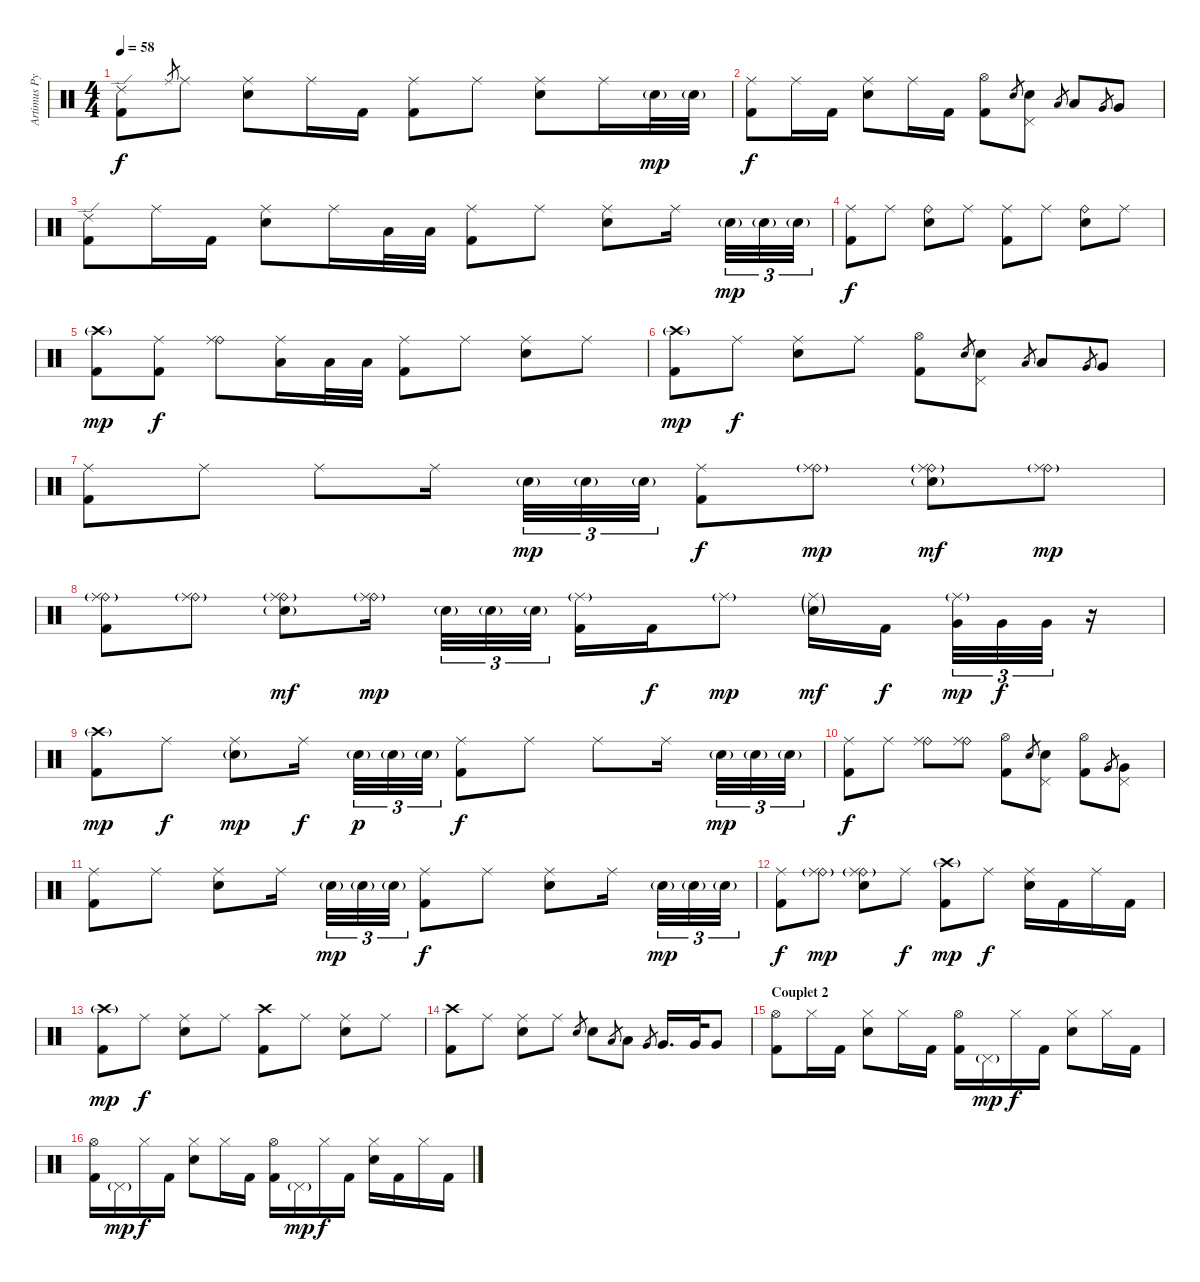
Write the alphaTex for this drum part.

\track ("Artimus Pyle (drums)" "Artimus Py") {instrument percussion}
\staff {score}
\articulation defaults
\ts (4 4)
\tempo 58
\clef neutral
\ks c
("Ride (edge) 2" "Kick (hit) 2").8{dy f} "Ride (middle)".8{gr} "Ride (middle)".8 ("Ride (middle)" "Electric Snare (hit)").8 "Ride (middle)".16 "Kick (hit) 2".16 ("Ride (middle)" "Kick (hit) 2").8 "Ride (middle)".8 ("Ride (middle)" "Electric Snare (hit)").8 "Ride (middle)".16 "Electric Snare (hit)"{g}.32{dy mp} "Electric Snare (hit)"{g}.32 |
("Ride (middle)" "Kick (hit) 2").8{dy f} "Ride (middle)".16 "Kick (hit) 2".16 ("Ride (middle)" "Electric Snare (hit)").8 "Ride (middle)".16 "Kick (hit) 2".16 ("Hi-Hat (open)" "Kick (hit) 2").8 "Electric Snare (hit)".8{gr} ("Pedal Hi-Hat (hit)" "Electric Snare (hit)").8 "Low Tom (hit)".8{gr} "Low Tom (hit)".8 "Very Low Tom (hit)".8{gr} "Very Low Tom (hit)".8 |
("Ride (edge) 2" "Kick (hit) 2").8 "Ride (middle)".16 "Kick (hit) 2".16 ("Ride (middle)" "Electric Snare (hit)").8 "Ride (middle)".16 "Low Tom (hit)".32 "Low Tom (hit)".32 ("Ride (middle)" "Kick (hit) 2").8 "Ride (middle)".8 ("Ride (middle)" "Electric Snare (hit)").8 "Ride (middle)".16 "Snare (hit) 2"{g}.32{tu (3 2) dy mp} "Snare (hit) 2"{g}.32{tu (3 2)} "Snare (hit) 2"{g}.32{tu (3 2)} |
("Ride (middle)" "Kick (hit) 2").8{dy f} "Ride (middle)".8 ("Ride (bell)" "Electric Snare (hit)").8 "Ride (middle)".8 ("Ride (middle)" "Kick (hit) 2").8 "Ride (middle)".8 ("Ride (bell)" "Electric Snare (hit)").8 "Ride (middle)".8 |
("Crash high (hit)"{g} "Kick (hit) 2").8{dy mp} ("Ride (middle)" "Kick (hit) 2").8{dy f} ("Ride (bell)" "Ride (middle)").8 ("Ride (middle)" "Low Tom (hit)").16 "Low Tom (hit)".32 "Low Tom (hit)".32 ("Ride (middle)" "Kick (hit) 2").8 "Ride (middle)".8 ("Ride (middle)" "Electric Snare (hit)").8 "Ride (middle)".8 |
("Crash high (hit)"{g} "Kick (hit) 2").8{dy mp} "Ride (middle)".8{dy f} ("Ride (middle)" "Electric Snare (hit)").8 "Ride (middle)".8 ("Hi-Hat (open)" "Kick (hit) 2").8 "Electric Snare (hit)".8{gr} ("Pedal Hi-Hat (hit)" "Electric Snare (hit)").8 "Low Tom (hit)".8{gr} "Low Tom (hit)".8 "Very Low Tom (hit)".8{gr} "Very Low Tom (hit)".8 |
("Ride (middle)" "Kick (hit) 2").8 "Ride (middle)".8 "Ride (middle)".8 "Ride (middle)".16 "Electric Snare (hit)"{g}.32{tu (3 2) dy mp} "Electric Snare (hit)"{g}.32{tu (3 2)} "Electric Snare (hit)"{g}.32{tu (3 2)} ("Ride (middle)" "Kick (hit) 2").8{dy f} ("Ride (bell)"{g} "Ride (middle)").8{dy mp} ("Ride (bell)"{g} "Ride (middle)" "Electric Snare (hit)"{g}).8{dy mf} ("Ride (bell)"{g} "Ride (middle)").8{dy mp} |
("Ride (bell)"{g} "Ride (middle)" "Kick (hit) 2").8 ("Ride (bell)"{g} "Ride (middle)").8 ("Ride (bell)"{g} "Ride (middle)" "Electric Snare (hit)"{g}).8{dy mf} ("Ride (bell)"{g} "Ride (middle)").16{dy mp} "Electric Snare (hit)"{g}.32{tu (3 2)} "Electric Snare (hit)"{g}.32{tu (3 2)} "Electric Snare (hit)"{g}.32{tu (3 2)} ("Ride (middle)"{g} "Kick (hit) 2").16 "Kick (hit) 2".16{dy f} "Ride (middle)"{g}.8{dy mp} ("Ride (middle)"{g} "Electric Snare (hit)"{g}).16{dy mf} "Kick (hit) 2".16{dy f} ("Ride (middle)"{g} "Very Low Tom (hit)").32{tu (3 2) dy mp} "Very Low Tom (hit)".32{tu (3 2) dy f} "Very Low Tom (hit)".32{tu (3 2)} r.16 |
("Crash high (hit)"{g} "Kick (hit) 2").8{dy mp} "Ride (middle)".8{dy f} ("Ride (middle)" "Electric Snare (hit)"{g}).8{dy mp} "Ride (middle)".16{dy f} "Electric Snare (hit)"{g}.32{tu (3 2) dy p} "Electric Snare (hit)"{g}.32{tu (3 2)} "Electric Snare (hit)"{g}.32{tu (3 2)} ("Ride (middle)" "Kick (hit) 2").8{dy f} "Ride (middle)".8 "Ride (middle)".8 "Ride (middle)".16 "Electric Snare (hit)"{g}.32{tu (3 2) dy mp} "Electric Snare (hit)"{g}.32{tu (3 2)} "Electric Snare (hit)"{g}.32{tu (3 2)} |
("Ride (middle)" "Kick (hit) 2").8{dy f} "Ride (middle)".8 ("Ride (bell)" "Ride (middle)").8 ("Ride (bell)" "Ride (middle)").8 ("Hi-Hat (open)" "Kick (hit) 2").8 "Electric Snare (hit)".8{gr} ("Pedal Hi-Hat (hit)" "Electric Snare (hit)").8 ("Hi-Hat (open)" "Kick (hit) 2").8 "Very Low Tom (hit)".8{gr} ("Pedal Hi-Hat (hit)" "Very Low Tom (hit)").8 |
("Ride (middle)" "Kick (hit) 2").8 "Ride (middle)".8 ("Ride (middle)" "Electric Snare (hit)").8 "Ride (middle)".16 "Electric Snare (hit)"{g}.32{tu (3 2) dy mp} "Electric Snare (hit)"{g}.32{tu (3 2)} "Electric Snare (hit)"{g}.32{tu (3 2)} ("Ride (middle)" "Kick (hit) 2").8{dy f} "Ride (middle)".8 ("Ride (middle)" "Electric Snare (hit)").8 "Ride (middle)".16 "Electric Snare (hit)"{g}.32{tu (3 2) dy mp} "Electric Snare (hit)"{g}.32{tu (3 2)} "Electric Snare (hit)"{g}.32{tu (3 2)} |
("Ride (middle)" "Kick (hit) 2").8{dy f} ("Ride (bell)"{g} "Ride (middle)").8{dy mp} ("Ride (bell)"{g} "Ride (middle)" "Electric Snare (hit)").8 "Ride (middle)".8{dy f} ("Crash high (hit)"{g} "Kick (hit) 2").8{dy mp} "Ride (middle)".8{dy f} ("Ride (middle)" "Electric Snare (hit)").16 "Kick (hit) 2".16 "Ride (middle)".16 "Kick (hit) 2".16 |
("Crash high (hit)"{g} "Kick (hit) 2").8{dy mp} "Ride (middle)".8{dy f} ("Ride (middle)" "Electric Snare (hit)").8 "Ride (middle)".8 ("Crash high (hit)" "Kick (hit) 2").8 "Ride (middle)".8 ("Ride (middle)" "Electric Snare (hit)").8 "Ride (middle)".8 |
("Crash high (hit)" "Kick (hit) 2").8 "Ride (middle)".8 ("Ride (middle)" "Electric Snare (hit)").8 "Ride (middle)".8 "Electric Snare (hit)".8{gr} "Electric Snare (hit)".8 "Low Tom (hit)".8{gr} "Low Tom (hit)".8 "Very Low Tom (hit)".8{gr} "Very Low Tom (hit)".16{d} "Very Low Tom (hit)".32 "Very Low Tom (hit)".8 |
\section ("" "Couplet 2")
("Hi-Hat (open)" "Kick (hit) 2").8 "Hi-Hat (closed)".16 "Kick (hit) 2".16 ("Hi-Hat (closed)" "Electric Snare (hit)").8 "Hi-Hat (closed)".16 "Kick (hit) 2".16 ("Hi-Hat (open)" "Kick (hit) 2").16 "Pedal Hi-Hat (hit)"{g}.16{dy mp} "Hi-Hat (closed)".16{dy f} "Kick (hit) 2".16 ("Hi-Hat (closed)" "Electric Snare (hit)").8 "Hi-Hat (closed)".16 "Kick (hit) 2".16 |
("Hi-Hat (open)" "Kick (hit) 2").16 "Pedal Hi-Hat (hit)"{g}.16{dy mp} "Hi-Hat (closed)".16{dy f} "Kick (hit) 2".16 ("Hi-Hat (closed)" "Electric Snare (hit)").8 "Hi-Hat (closed)".16 "Kick (hit) 2".16 ("Hi-Hat (open)" "Kick (hit) 2").16 "Pedal Hi-Hat (hit)"{g}.16{dy mp} "Hi-Hat (closed)".16{dy f} "Kick (hit) 2".16 ("Hi-Hat (closed)" "Electric Snare (hit)").16 "Kick (hit) 2".16 "Hi-Hat (closed)".16 "Kick (hit) 2".16
